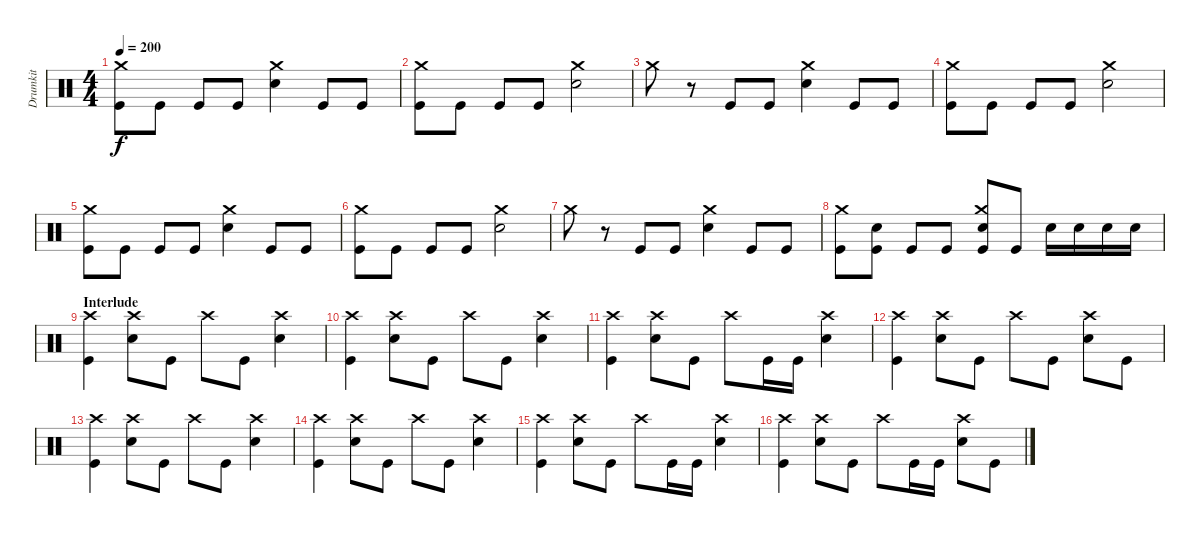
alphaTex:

\track ("Drumkit" "Drumkit") {instrument percussion}
\staff {score}
\articulation defaults
\ts (4 4)
\tempo 200
\clef neutral
\ks c
("Kick (hit)" "Crash medium (hit)").8{dy f} "Kick (hit)".8 "Kick (hit)".8 "Kick (hit)".8 ("Snare (hit) 2" "Crash medium (hit)").4 "Kick (hit)".8 "Kick (hit)".8 |
("Kick (hit)" "Crash medium (hit)").8 "Kick (hit)".8 "Kick (hit)".8 "Kick (hit)".8 ("Snare (hit) 2" "Crash medium (hit)").2 |
"Crash medium (hit)".8 r.8 "Kick (hit)".8 "Kick (hit)".8 ("Snare (hit) 2" "Crash medium (hit)").4 "Kick (hit)".8 "Kick (hit)".8 |
("Kick (hit)" "Crash medium (hit)").8 "Kick (hit)".8 "Kick (hit)".8 "Kick (hit)".8 ("Snare (hit) 2" "Crash medium (hit)").2 |
("Kick (hit)" "Crash medium (hit)").8 "Kick (hit)".8 "Kick (hit)".8 "Kick (hit)".8 ("Snare (hit) 2" "Crash medium (hit)").4 "Kick (hit)".8 "Kick (hit)".8 |
("Kick (hit)" "Crash medium (hit)").8 "Kick (hit)".8 "Kick (hit)".8 "Kick (hit)".8 ("Snare (hit) 2" "Crash medium (hit)").2 |
"Crash medium (hit)".8 r.8 "Kick (hit)".8 "Kick (hit)".8 ("Snare (hit) 2" "Crash medium (hit)").4 "Kick (hit)".8 "Kick (hit)".8 |
("Kick (hit)" "Crash medium (hit)").8 ("Kick (hit)" "Snare (hit) 2").8 "Kick (hit)".8 "Kick (hit)".8 ("Snare (hit) 2" "Kick (hit)" "Crash medium (hit)").8 "Kick (hit)".8 "Snare (hit) 2".16 "Snare (hit) 2".16 "Snare (hit) 2".16 "Snare (hit) 2".16 |
\section ("" "Interlude")
("Kick (hit)" "Crash high (hit)").4 ("Snare (hit) 2" "Crash high (hit)").8 "Kick (hit)".8 "Crash high (hit)".8 "Kick (hit)".8 ("Snare (hit) 2" "Crash high (hit)").4 |
("Kick (hit)" "Crash high (hit)").4 ("Snare (hit) 2" "Crash high (hit)").8 "Kick (hit)".8 "Crash high (hit)".8 "Kick (hit)".8 ("Snare (hit) 2" "Crash high (hit)").4 |
("Kick (hit)" "Crash high (hit)").4 ("Snare (hit) 2" "Crash high (hit)").8 "Kick (hit)".8 "Crash high (hit)".8 "Kick (hit)".16 "Kick (hit)".16 ("Snare (hit) 2" "Crash high (hit)").4 |
("Kick (hit)" "Crash high (hit)").4 ("Snare (hit) 2" "Crash high (hit)").8 "Kick (hit)".8 "Crash high (hit)".8 "Kick (hit)".8 ("Snare (hit) 2" "Crash high (hit)").8 "Kick (hit)".8 |
("Kick (hit)" "Crash high (hit)").4 ("Snare (hit) 2" "Crash high (hit)").8 "Kick (hit)".8 "Crash high (hit)".8 "Kick (hit)".8 ("Snare (hit) 2" "Crash high (hit)").4 |
("Kick (hit)" "Crash high (hit)").4 ("Snare (hit) 2" "Crash high (hit)").8 "Kick (hit)".8 "Crash high (hit)".8 "Kick (hit)".8 ("Snare (hit) 2" "Crash high (hit)").4 |
("Kick (hit)" "Crash high (hit)").4 ("Snare (hit) 2" "Crash high (hit)").8 "Kick (hit)".8 "Crash high (hit)".8 "Kick (hit)".16 "Kick (hit)".16 ("Snare (hit) 2" "Crash high (hit)").4 |
("Kick (hit)" "Crash high (hit)").4 ("Snare (hit) 2" "Crash high (hit)").8 "Kick (hit)".8 "Crash high (hit)".8 "Kick (hit)".16 "Kick (hit)".16 ("Snare (hit) 2" "Crash high (hit)").8 "Kick (hit)".8
